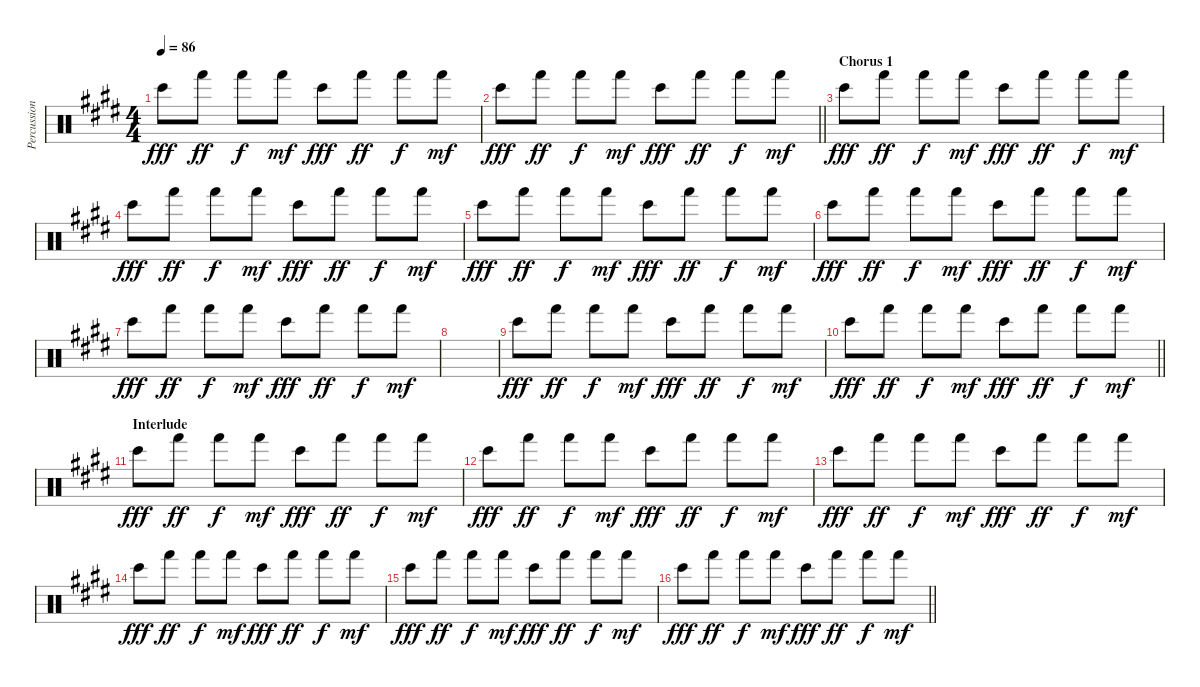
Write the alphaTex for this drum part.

\track ("Percussion" "Percussion") {instrument percussion}
\staff {score}
\articulation defaults
\ts (4 4)
\tempo 86
\clef neutral
\ks e "Bongo High (hit)".8{dy fff} "Hand (hit)".8{dy ff} "Hand (hit)".8{dy f} "Hand (hit)".8{dy mf} "Bongo High (hit)".8{dy fff} "Hand (hit)".8{dy ff} "Hand (hit)".8{dy f} "Hand (hit)".8{dy mf}
|
\barLineRight lightlight "Bongo High (hit)".8{dy fff} "Hand (hit)".8{dy ff} "Hand (hit)".8{dy f} "Hand (hit)".8{dy mf} "Bongo High (hit)".8{dy fff} "Hand (hit)".8{dy ff} "Hand (hit)".8{dy f} "Hand (hit)".8{dy mf}
|
\section ("" "Chorus 1")
"Bongo High (hit)".8{dy fff} "Hand (hit)".8{dy ff} "Hand (hit)".8{dy f} "Hand (hit)".8{dy mf} "Bongo High (hit)".8{dy fff} "Hand (hit)".8{dy ff} "Hand (hit)".8{dy f} "Hand (hit)".8{dy mf} |
"Bongo High (hit)".8{dy fff} "Hand (hit)".8{dy ff} "Hand (hit)".8{dy f} "Hand (hit)".8{dy mf} "Bongo High (hit)".8{dy fff} "Hand (hit)".8{dy ff} "Hand (hit)".8{dy f} "Hand (hit)".8{dy mf} |
"Bongo High (hit)".8{dy fff} "Hand (hit)".8{dy ff} "Hand (hit)".8{dy f} "Hand (hit)".8{dy mf} "Bongo High (hit)".8{dy fff} "Hand (hit)".8{dy ff} "Hand (hit)".8{dy f} "Hand (hit)".8{dy mf} |
"Bongo High (hit)".8{dy fff} "Hand (hit)".8{dy ff} "Hand (hit)".8{dy f} "Hand (hit)".8{dy mf} "Bongo High (hit)".8{dy fff} "Hand (hit)".8{dy ff} "Hand (hit)".8{dy f} "Hand (hit)".8{dy mf} |
"Bongo High (hit)".8{dy fff} "Hand (hit)".8{dy ff} "Hand (hit)".8{dy f} "Hand (hit)".8{dy mf} "Bongo High (hit)".8{dy fff} "Hand (hit)".8{dy ff} "Hand (hit)".8{dy f} "Hand (hit)".8{dy mf} |
|
"Bongo High (hit)".8{dy fff} "Hand (hit)".8{dy ff} "Hand (hit)".8{dy f} "Hand (hit)".8{dy mf} "Bongo High (hit)".8{dy fff} "Hand (hit)".8{dy ff} "Hand (hit)".8{dy f} "Hand (hit)".8{dy mf} |
\barLineRight lightlight "Bongo High (hit)".8{dy fff} "Hand (hit)".8{dy ff} "Hand (hit)".8{dy f} "Hand (hit)".8{dy mf} "Bongo High (hit)".8{dy fff} "Hand (hit)".8{dy ff} "Hand (hit)".8{dy f} "Hand (hit)".8{dy mf}
|
\section ("" "Interlude")
"Bongo High (hit)".8{dy fff} "Hand (hit)".8{dy ff} "Hand (hit)".8{dy f} "Hand (hit)".8{dy mf} "Bongo High (hit)".8{dy fff} "Hand (hit)".8{dy ff} "Hand (hit)".8{dy f} "Hand (hit)".8{dy mf} |
"Bongo High (hit)".8{dy fff} "Hand (hit)".8{dy ff} "Hand (hit)".8{dy f} "Hand (hit)".8{dy mf} "Bongo High (hit)".8{dy fff} "Hand (hit)".8{dy ff} "Hand (hit)".8{dy f} "Hand (hit)".8{dy mf} |
"Bongo High (hit)".8{dy fff} "Hand (hit)".8{dy ff} "Hand (hit)".8{dy f} "Hand (hit)".8{dy mf} "Bongo High (hit)".8{dy fff} "Hand (hit)".8{dy ff} "Hand (hit)".8{dy f} "Hand (hit)".8{dy mf} |
"Bongo High (hit)".8{dy fff} "Hand (hit)".8{dy ff} "Hand (hit)".8{dy f} "Hand (hit)".8{dy mf} "Bongo High (hit)".8{dy fff} "Hand (hit)".8{dy ff} "Hand (hit)".8{dy f} "Hand (hit)".8{dy mf} |
"Bongo High (hit)".8{dy fff} "Hand (hit)".8{dy ff} "Hand (hit)".8{dy f} "Hand (hit)".8{dy mf} "Bongo High (hit)".8{dy fff} "Hand (hit)".8{dy ff} "Hand (hit)".8{dy f} "Hand (hit)".8{dy mf} |
\barLineRight lightlight "Bongo High (hit)".8{dy fff} "Hand (hit)".8{dy ff} "Hand (hit)".8{dy f} "Hand (hit)".8{dy mf} "Bongo High (hit)".8{dy fff} "Hand (hit)".8{dy ff} "Hand (hit)".8{dy f} "Hand (hit)".8{dy mf}
